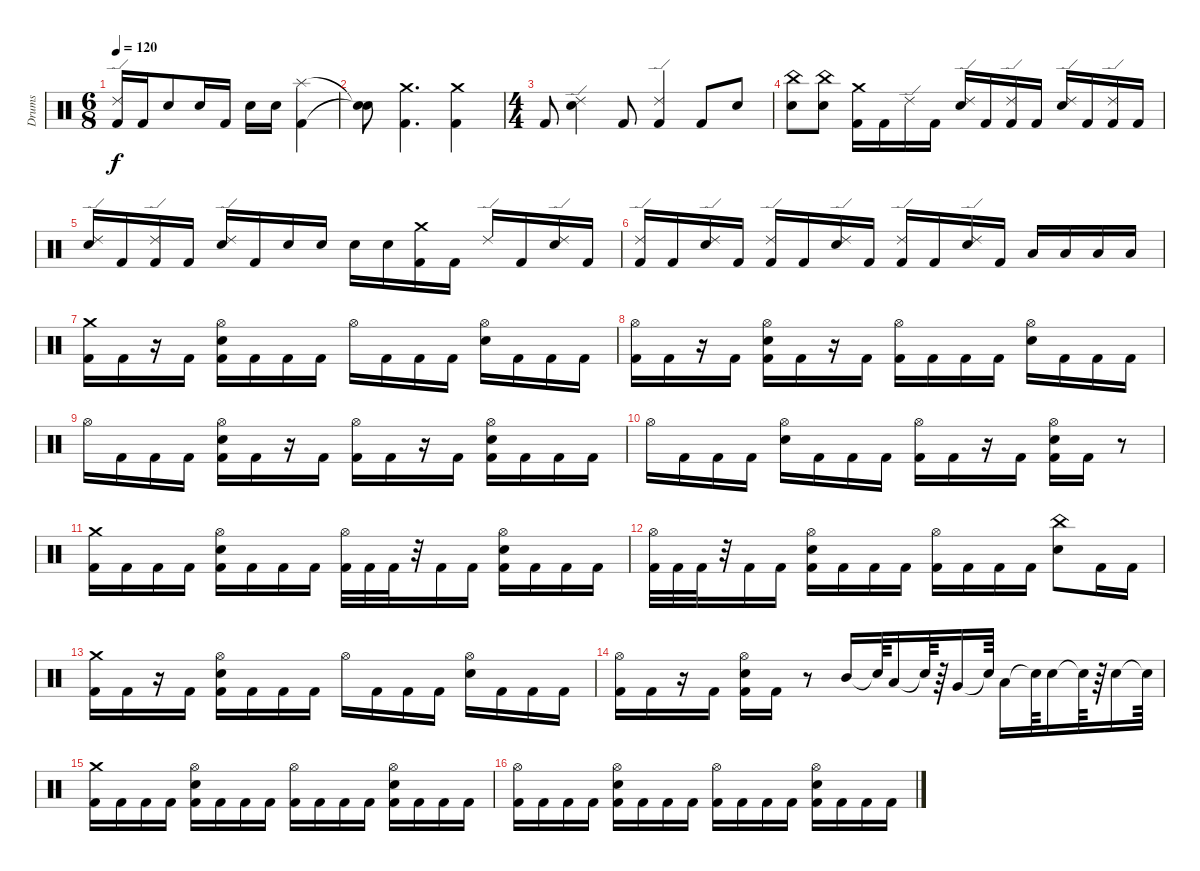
\track ("Drums" "Drums") {instrument percussion}
\staff {score}
\articulation defaults
\ts (6 8)
\tempo 120
\clef neutral
\ks c
("Ride (edge) 2" "Kick (hit) 2").16{dy f} "Kick (hit) 2".16 "Electric Snare (hit)".8 "Electric Snare (hit)".16 "Kick (hit) 2".16 "Electric Snare (hit)".16 "Electric Snare (hit)".16 ("Splash (hit)" "Kick (hit) 2").4 |
("Snare (hit)"{t} "Snare (hit)"{t}).8 ("Crash medium (hit)" "Kick (hit) 2").4{d} ("Crash medium (hit)" "Kick (hit) 2").4 |
\ts (4 4)
"Kick (hit) 2".8 ("Ride (edge) 2" "Electric Snare (hit)").4 "Kick (hit) 2".8 ("Ride (edge) 2" "Kick (hit) 2").4 "Kick (hit) 2".8 "Electric Snare (hit)".8 |
("China (hit)" "Electric Snare (hit)").8 ("China (hit)" "Electric Snare (hit)").8 ("Crash medium (hit)" "Kick (hit) 2").16 "Kick (hit) 2".16 "Ride (edge) 2".16 "Kick (hit) 2".16 ("Ride (edge) 2" "Electric Snare (hit)").16 "Kick (hit) 2".16 ("Ride (edge) 2" "Kick (hit) 2").16 "Kick (hit) 2".16 ("Ride (edge) 2" "Electric Snare (hit)").16 "Kick (hit) 2".16 ("Ride (edge) 2" "Kick (hit) 2").16 "Kick (hit) 2".16 |
("Electric Snare (hit)" "Ride (edge) 2").16 "Kick (hit) 2".16 ("Kick (hit) 2" "Ride (edge) 2").16 "Kick (hit) 2".16 ("Electric Snare (hit)" "Ride (edge) 2").16 "Kick (hit) 2".16 "Electric Snare (hit)".16 "Electric Snare (hit)".16 "Electric Snare (hit)".16 "Electric Snare (hit)".16 ("Crash medium (hit)" "Kick (hit) 2").16 "Kick (hit) 2".16 "Ride (edge) 2".16 "Kick (hit) 2".16 ("Ride (edge) 2" "Electric Snare (hit)").16 "Kick (hit) 2".16 |
("Ride (edge) 2" "Kick (hit) 2").16 "Kick (hit) 2".16 ("Ride (edge) 2" "Electric Snare (hit)").16 "Kick (hit) 2".16 ("Ride (edge) 2" "Kick (hit) 2").16 "Kick (hit) 2".16 ("Electric Snare (hit)" "Ride (edge) 2").16 "Kick (hit) 2".16 ("Kick (hit) 2" "Ride (edge) 2").16 "Kick (hit) 2".16 ("Electric Snare (hit)" "Ride (edge) 2").16 "Kick (hit) 2".16 "Low Tom (hit)".16 "Low Tom (hit)".16 "Low Tom (hit)".16 "Low Tom (hit)".16 |
("Crash medium (hit)" "Kick (hit) 2").16 "Kick (hit) 2".16 r.16 "Kick (hit) 2".16 ("Electric Snare (hit)" "Hi-Hat (open)" "Kick (hit) 2").16 "Kick (hit) 2".16 "Kick (hit) 2".16 "Kick (hit) 2".16 "Hi-Hat (open)".16 "Kick (hit) 2".16 "Kick (hit) 2".16 "Kick (hit) 2".16 ("Electric Snare (hit)" "Hi-Hat (open)").16 "Kick (hit) 2".16 "Kick (hit) 2".16 "Kick (hit) 2".16 |
("Hi-Hat (open)" "Kick (hit) 2").16 "Kick (hit) 2".16 r.16 "Kick (hit) 2".16 ("Electric Snare (hit)" "Hi-Hat (open)" "Kick (hit) 2").16 "Kick (hit) 2".16 r.16 "Kick (hit) 2".16 ("Hi-Hat (open)" "Kick (hit) 2").16 "Kick (hit) 2".16 "Kick (hit) 2".16 "Kick (hit) 2".16 ("Electric Snare (hit)" "Hi-Hat (open)").16 "Kick (hit) 2".16 "Kick (hit) 2".16 "Kick (hit) 2".16 |
"Hi-Hat (open)".16 "Kick (hit) 2".16 "Kick (hit) 2".16 "Kick (hit) 2".16 ("Electric Snare (hit)" "Hi-Hat (open)" "Kick (hit) 2").16 "Kick (hit) 2".16 r.16 "Kick (hit) 2".16 ("Hi-Hat (open)" "Kick (hit) 2").16 "Kick (hit) 2".16 r.16 "Kick (hit) 2".16 ("Electric Snare (hit)" "Hi-Hat (open)" "Kick (hit) 2").16 "Kick (hit) 2".16 "Kick (hit) 2".16 "Kick (hit) 2".16 |
"Hi-Hat (open)".16 "Kick (hit) 2".16 "Kick (hit) 2".16 "Kick (hit) 2".16 ("Electric Snare (hit)" "Hi-Hat (open)").16 "Kick (hit) 2".16 "Kick (hit) 2".16 "Kick (hit) 2".16 ("Hi-Hat (open)" "Kick (hit) 2").16 "Kick (hit) 2".16 r.16 "Kick (hit) 2".16 ("Electric Snare (hit)" "Hi-Hat (open)" "Kick (hit) 2").16 "Kick (hit) 2".16 r.8 |
("Crash medium (hit)" "Kick (hit) 2").16 "Kick (hit) 2".16 "Kick (hit) 2".16 "Kick (hit) 2".16 ("Electric Snare (hit)" "Hi-Hat (open)" "Kick (hit) 2").16 "Kick (hit) 2".16 "Kick (hit) 2".16 "Kick (hit) 2".16 ("Hi-Hat (open)" "Kick (hit) 2").32 "Kick (hit) 2".32 "Kick (hit) 2".32 r.32 "Kick (hit) 2".16 "Kick (hit) 2".16 ("Electric Snare (hit)" "Hi-Hat (open)" "Kick (hit) 2").16 "Kick (hit) 2".16 "Kick (hit) 2".16 "Kick (hit) 2".16 |
("Hi-Hat (open)" "Kick (hit) 2").32 "Kick (hit) 2".32 "Kick (hit) 2".32 r.32 "Kick (hit) 2".16 "Kick (hit) 2".16 ("Electric Snare (hit)" "Hi-Hat (open)" "Kick (hit) 2").16 "Kick (hit) 2".16 "Kick (hit) 2".16 "Kick (hit) 2".16 ("Hi-Hat (open)" "Kick (hit) 2").16 "Kick (hit) 2".16 "Kick (hit) 2".16 "Kick (hit) 2".16 ("China (hit)" "Electric Snare (hit)").8 "Kick (hit) 2".16 "Kick (hit) 2".16 |
("Crash medium (hit)" "Kick (hit) 2").16 "Kick (hit) 2".16 r.16 "Kick (hit) 2".16 ("Electric Snare (hit)" "Hi-Hat (open)" "Kick (hit) 2").16 "Kick (hit) 2".16 "Kick (hit) 2".16 "Kick (hit) 2".16 "Hi-Hat (open)".16 "Kick (hit) 2".16 "Kick (hit) 2".16 "Kick (hit) 2".16 ("Electric Snare (hit)" "Hi-Hat (open)").16 "Kick (hit) 2".16 "Kick (hit) 2".16 "Kick (hit) 2".16 |
("Hi-Hat (open)" "Kick (hit) 2").16 "Kick (hit) 2".16 r.16 "Kick (hit) 2".16 ("Electric Snare (hit)" "Hi-Hat (open)" "Kick (hit) 2").16 "Kick (hit) 2".16 r.8 "Mid Tom (hit)".16 "Snare (hit)"{t}.64 "Low Tom (hit)".16 "Snare (hit)"{t}.64 r.64 "Very Low Tom (hit)".16 "Snare (hit)"{t}.64 "Low Floor Tom (hit)".16 "Snare (hit)"{t}.64 "Electric Snare (hit)".16 "Snare (hit)"{t}.64 r.64 "Electric Snare (hit)".16 "Snare (hit)"{t}.64 |
("Crash medium (hit)" "Kick (hit) 2").16 "Kick (hit) 2".16 "Kick (hit) 2".16 "Kick (hit) 2".16 ("Hi-Hat (open)" "Electric Snare (hit)" "Kick (hit) 2").16 "Kick (hit) 2".16 "Kick (hit) 2".16 "Kick (hit) 2".16 ("Hi-Hat (open)" "Kick (hit) 2").16 "Kick (hit) 2".16 "Kick (hit) 2".16 "Kick (hit) 2".16 ("Hi-Hat (open)" "Electric Snare (hit)" "Kick (hit) 2").16 "Kick (hit) 2".16 "Kick (hit) 2".16 "Kick (hit) 2".16 |
("Hi-Hat (open)" "Kick (hit) 2").16 "Kick (hit) 2".16 "Kick (hit) 2".16 "Kick (hit) 2".16 ("Hi-Hat (open)" "Electric Snare (hit)" "Kick (hit) 2").16 "Kick (hit) 2".16 "Kick (hit) 2".16 "Kick (hit) 2".16 ("Hi-Hat (open)" "Kick (hit) 2").16 "Kick (hit) 2".16 "Kick (hit) 2".16 "Kick (hit) 2".16 ("Hi-Hat (open)" "Electric Snare (hit)" "Kick (hit) 2").16 "Kick (hit) 2".16 "Kick (hit) 2".16 "Kick (hit) 2".16
